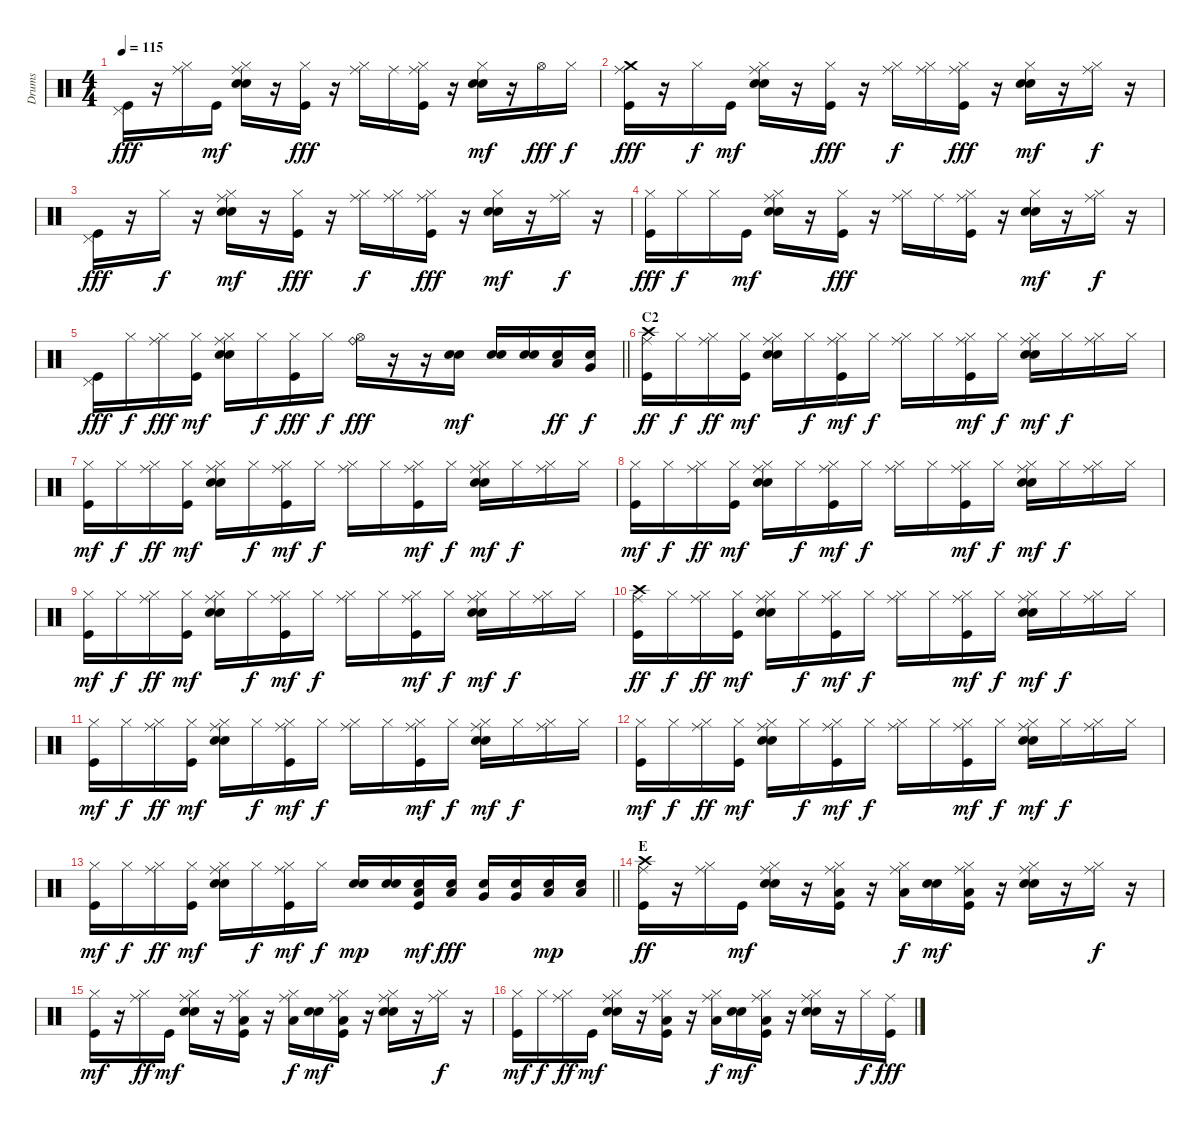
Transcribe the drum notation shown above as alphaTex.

\track ("Drums" "Drums") {instrument percussion}
\staff {score}
\articulation defaults
\ts (4 4)
\tempo 115
\clef neutral
\ks c
("Pedal Hi-Hat (hit)" "Kick (hit)").16{dy fff} r.16 ("Hi-Hat (closed)" "Ride (middle)").16 "Kick (hit)".16{dy mf} ("Hi-Hat (closed)" "Ride (middle)" "Electric Snare (hit)" "Snare (hit) 2").16 r.16 ("Hi-Hat (closed)" "Kick (hit)").16{dy fff} r.16 ("Hi-Hat (closed)" "Ride (middle)").16 "Ride (middle)".16 ("Hi-Hat (closed)" "Ride (middle)" "Kick (hit)").16 r.16 ("Hi-Hat (closed)" "Electric Snare (hit)" "Snare (hit) 2").16{dy mf} r.16 "Hi-Hat (open)".16{dy fff} "Hi-Hat (closed)".16{dy f} |
("Crash medium (hit)" "Ride (middle)" "Kick (hit)").16{dy fff} r.16 "Hi-Hat (closed)".16{dy f} "Kick (hit)".16{dy mf} ("Hi-Hat (closed)" "Ride (middle)" "Electric Snare (hit)" "Snare (hit) 2").16 r.16 ("Hi-Hat (closed)" "Kick (hit)").16{dy fff} r.16 ("Hi-Hat (closed)" "Ride (middle)").16{dy f} ("Hi-Hat (closed)" "Ride (middle)").16 ("Hi-Hat (closed)" "Ride (middle)" "Kick (hit)").16{dy fff} r.16 ("Hi-Hat (closed)" "Electric Snare (hit)" "Snare (hit) 2").16{dy mf} r.16 ("Hi-Hat (closed)" "Ride (middle)").16{dy f} r.16 |
("Pedal Hi-Hat (hit)" "Kick (hit)").16{dy fff} r.16 "Hi-Hat (closed)".16{dy f} r.16 ("Hi-Hat (closed)" "Ride (middle)" "Electric Snare (hit)" "Snare (hit) 2").16{dy mf} r.16 ("Hi-Hat (closed)" "Kick (hit)").16{dy fff} r.16 ("Hi-Hat (closed)" "Ride (middle)").16{dy f} ("Hi-Hat (closed)" "Ride (middle)").16 ("Hi-Hat (closed)" "Ride (middle)" "Kick (hit)").16{dy fff} r.16 ("Hi-Hat (closed)" "Electric Snare (hit)" "Snare (hit) 2").16{dy mf} r.16 ("Hi-Hat (closed)" "Ride (middle)").16{dy f} r.16 |
("Hi-Hat (closed)" "Kick (hit)").16{dy fff} "Hi-Hat (closed)".16{dy f} "Hi-Hat (closed)".16 "Kick (hit)".16{dy mf} ("Hi-Hat (closed)" "Ride (middle)" "Electric Snare (hit)" "Snare (hit) 2").16 r.16 ("Hi-Hat (closed)" "Kick (hit)").16{dy fff} r.16 ("Hi-Hat (closed)" "Ride (middle)").16 "Ride (middle)".16 ("Hi-Hat (closed)" "Ride (middle)" "Kick (hit)").16 r.16 ("Hi-Hat (closed)" "Electric Snare (hit)" "Snare (hit) 2").16{dy mf} r.16 ("Hi-Hat (closed)" "Ride (middle)").16{dy f} r.16 |
\barLineRight lightlight
("Pedal Hi-Hat (hit)" "Kick (hit)").16{dy fff} "Hi-Hat (closed)".16{dy f} ("Hi-Hat (closed)" "Ride (middle)").16{dy fff} ("Hi-Hat (closed)" "Kick (hit)").16{dy mf} ("Hi-Hat (closed)" "Ride (middle)" "Electric Snare (hit)" "Snare (hit) 2").16 "Hi-Hat (closed)".16{dy f} ("Hi-Hat (closed)" "Kick (hit)").16{dy fff} "Hi-Hat (closed)".16{dy f} ("Hi-Hat (open)" "Ride (bell)").16{dy fff} r.16 r.16 ("Electric Snare (hit)" "Snare (hit) 2").16{dy mf} ("Electric Snare (hit)" "Snare (hit) 2").16 ("Electric Snare (hit)" "Snare (hit) 2").16 ("Electric Snare (hit)" "Low Tom (hit)").16{dy ff} ("Electric Snare (hit)" "Very Low Tom (hit)").16{dy f} |
\section ("" "C2")
("Crash high (hit)" "Ride (middle)" "Kick (hit)").16{dy ff} "Hi-Hat (closed)".16{dy f} ("Hi-Hat (closed)" "Ride (middle)").16{dy ff} ("Hi-Hat (closed)" "Kick (hit)").16{dy mf} ("Hi-Hat (closed)" "Ride (middle)" "Electric Snare (hit)" "Snare (hit) 2").16 "Hi-Hat (closed)".16{dy f} ("Hi-Hat (closed)" "Ride (middle)" "Kick (hit)").16{dy mf} "Hi-Hat (closed)".16{dy f} ("Hi-Hat (closed)" "Ride (middle)").16 "Hi-Hat (closed)".16 ("Hi-Hat (closed)" "Ride (middle)" "Kick (hit)").16{dy mf} "Hi-Hat (closed)".16{dy f} ("Hi-Hat (closed)" "Ride (middle)" "Electric Snare (hit)" "Snare (hit) 2").16{dy mf} "Hi-Hat (closed)".16{dy f} ("Hi-Hat (closed)" "Ride (middle)").16 "Hi-Hat (closed)".16 |
("Hi-Hat (closed)" "Kick (hit)").16{dy mf} "Hi-Hat (closed)".16{dy f} ("Hi-Hat (closed)" "Ride (middle)").16{dy ff} ("Hi-Hat (closed)" "Kick (hit)").16{dy mf} ("Hi-Hat (closed)" "Ride (middle)" "Electric Snare (hit)" "Snare (hit) 2").16 "Hi-Hat (closed)".16{dy f} ("Hi-Hat (closed)" "Ride (middle)" "Kick (hit)").16{dy mf} "Hi-Hat (closed)".16{dy f} ("Hi-Hat (closed)" "Ride (middle)").16 "Hi-Hat (closed)".16 ("Hi-Hat (closed)" "Ride (middle)" "Kick (hit)").16{dy mf} "Hi-Hat (closed)".16{dy f} ("Hi-Hat (closed)" "Ride (middle)" "Electric Snare (hit)" "Snare (hit) 2").16{dy mf} "Hi-Hat (closed)".16{dy f} ("Hi-Hat (closed)" "Ride (middle)").16 "Hi-Hat (closed)".16 |
("Hi-Hat (closed)" "Kick (hit)").16{dy mf} "Hi-Hat (closed)".16{dy f} ("Hi-Hat (closed)" "Ride (middle)").16{dy ff} ("Hi-Hat (closed)" "Kick (hit)").16{dy mf} ("Hi-Hat (closed)" "Ride (middle)" "Electric Snare (hit)" "Snare (hit) 2").16 "Hi-Hat (closed)".16{dy f} ("Hi-Hat (closed)" "Ride (middle)" "Kick (hit)").16{dy mf} "Hi-Hat (closed)".16{dy f} ("Hi-Hat (closed)" "Ride (middle)").16 "Hi-Hat (closed)".16 ("Hi-Hat (closed)" "Ride (middle)" "Kick (hit)").16{dy mf} "Hi-Hat (closed)".16{dy f} ("Hi-Hat (closed)" "Ride (middle)" "Electric Snare (hit)" "Snare (hit) 2").16{dy mf} "Hi-Hat (closed)".16{dy f} ("Hi-Hat (closed)" "Ride (middle)").16 "Hi-Hat (closed)".16 |
("Hi-Hat (closed)" "Kick (hit)").16{dy mf} "Hi-Hat (closed)".16{dy f} ("Hi-Hat (closed)" "Ride (middle)").16{dy ff} ("Hi-Hat (closed)" "Kick (hit)").16{dy mf} ("Hi-Hat (closed)" "Ride (middle)" "Electric Snare (hit)" "Snare (hit) 2").16 "Hi-Hat (closed)".16{dy f} ("Hi-Hat (closed)" "Ride (middle)" "Kick (hit)").16{dy mf} "Hi-Hat (closed)".16{dy f} ("Hi-Hat (closed)" "Ride (middle)").16 "Hi-Hat (closed)".16 ("Hi-Hat (closed)" "Ride (middle)" "Kick (hit)").16{dy mf} "Hi-Hat (closed)".16{dy f} ("Hi-Hat (closed)" "Ride (middle)" "Electric Snare (hit)" "Snare (hit) 2").16{dy mf} "Hi-Hat (closed)".16{dy f} ("Hi-Hat (closed)" "Ride (middle)").16 "Hi-Hat (closed)".16 |
("Crash high (hit)" "Ride (middle)" "Kick (hit)").16{dy ff} "Hi-Hat (closed)".16{dy f} ("Hi-Hat (closed)" "Ride (middle)").16{dy ff} ("Hi-Hat (closed)" "Kick (hit)").16{dy mf} ("Hi-Hat (closed)" "Ride (middle)" "Electric Snare (hit)" "Snare (hit) 2").16 "Hi-Hat (closed)".16{dy f} ("Hi-Hat (closed)" "Ride (middle)" "Kick (hit)").16{dy mf} "Hi-Hat (closed)".16{dy f} ("Hi-Hat (closed)" "Ride (middle)").16 "Hi-Hat (closed)".16 ("Hi-Hat (closed)" "Ride (middle)" "Kick (hit)").16{dy mf} "Hi-Hat (closed)".16{dy f} ("Hi-Hat (closed)" "Ride (middle)" "Electric Snare (hit)" "Snare (hit) 2").16{dy mf} "Hi-Hat (closed)".16{dy f} ("Hi-Hat (closed)" "Ride (middle)").16 "Hi-Hat (closed)".16 |
("Hi-Hat (closed)" "Kick (hit)").16{dy mf} "Hi-Hat (closed)".16{dy f} ("Hi-Hat (closed)" "Ride (middle)").16{dy ff} ("Hi-Hat (closed)" "Kick (hit)").16{dy mf} ("Hi-Hat (closed)" "Ride (middle)" "Electric Snare (hit)" "Snare (hit) 2").16 "Hi-Hat (closed)".16{dy f} ("Hi-Hat (closed)" "Ride (middle)" "Kick (hit)").16{dy mf} "Hi-Hat (closed)".16{dy f} ("Hi-Hat (closed)" "Ride (middle)").16 "Hi-Hat (closed)".16 ("Hi-Hat (closed)" "Ride (middle)" "Kick (hit)").16{dy mf} "Hi-Hat (closed)".16{dy f} ("Hi-Hat (closed)" "Ride (middle)" "Electric Snare (hit)" "Snare (hit) 2").16{dy mf} "Hi-Hat (closed)".16{dy f} ("Hi-Hat (closed)" "Ride (middle)").16 "Hi-Hat (closed)".16 |
("Hi-Hat (closed)" "Kick (hit)").16{dy mf} "Hi-Hat (closed)".16{dy f} ("Hi-Hat (closed)" "Ride (middle)").16{dy ff} ("Hi-Hat (closed)" "Kick (hit)").16{dy mf} ("Hi-Hat (closed)" "Ride (middle)" "Electric Snare (hit)" "Snare (hit) 2").16 "Hi-Hat (closed)".16{dy f} ("Hi-Hat (closed)" "Ride (middle)" "Kick (hit)").16{dy mf} "Hi-Hat (closed)".16{dy f} ("Hi-Hat (closed)" "Ride (middle)").16 "Hi-Hat (closed)".16 ("Hi-Hat (closed)" "Ride (middle)" "Kick (hit)").16{dy mf} "Hi-Hat (closed)".16{dy f} ("Hi-Hat (closed)" "Ride (middle)" "Electric Snare (hit)" "Snare (hit) 2").16{dy mf} "Hi-Hat (closed)".16{dy f} ("Hi-Hat (closed)" "Ride (middle)").16 "Hi-Hat (closed)".16 |
\barLineRight lightlight
("Hi-Hat (closed)" "Kick (hit)").16{dy mf} "Hi-Hat (closed)".16{dy f} ("Hi-Hat (closed)" "Ride (middle)").16{dy ff} ("Hi-Hat (closed)" "Kick (hit)").16{dy mf} ("Hi-Hat (closed)" "Ride (middle)" "Electric Snare (hit)" "Snare (hit) 2").16 "Hi-Hat (closed)".16{dy f} ("Hi-Hat (closed)" "Ride (middle)" "Kick (hit)").16{dy mf} "Hi-Hat (closed)".16{dy f} ("Electric Snare (hit)" "Snare (hit) 2").16{dy mp} ("Electric Snare (hit)" "Snare (hit) 2").16 ("Electric Snare (hit)" "Low Tom (hit)" "Kick (hit)").16{dy mf} ("Electric Snare (hit)" "Low Tom (hit)").16{dy fff} ("Electric Snare (hit)" "Very Low Tom (hit)").16 ("Electric Snare (hit)" "Very Low Tom (hit)").16 ("Electric Snare (hit)" "Low Floor Tom (hit)").16{dy mp} ("Electric Snare (hit)" "Low Floor Tom (hit)").16 |
\section ("" "E")
("Crash high (hit)" "Ride (middle)" "Kick (hit)").16{dy ff} r.16 ("Hi-Hat (closed)" "Ride (middle)").16 "Kick (hit)".16{dy mf} ("Hi-Hat (closed)" "Ride (middle)" "Electric Snare (hit)" "Snare (hit) 2").16 r.16 ("Hi-Hat (closed)" "Ride (middle)" "Low Tom (hit)" "Kick (hit)").16 r.16 ("Hi-Hat (closed)" "Ride (middle)" "Low Tom (hit)").16{dy f} ("Electric Snare (hit)" "Snare (hit) 2").16{dy mf} ("Hi-Hat (closed)" "Ride (middle)" "Low Tom (hit)" "Kick (hit)").16 r.16 ("Hi-Hat (closed)" "Ride (middle)" "Electric Snare (hit)" "Snare (hit) 2").16 r.16 ("Hi-Hat (closed)" "Ride (middle)").16{dy f} r.16 |
("Hi-Hat (closed)" "Kick (hit)").16{dy mf} r.16 ("Hi-Hat (closed)" "Ride (middle)").16{dy ff} "Kick (hit)".16{dy mf} ("Hi-Hat (closed)" "Ride (middle)" "Electric Snare (hit)" "Snare (hit) 2").16 r.16 ("Hi-Hat (closed)" "Ride (middle)" "Low Tom (hit)" "Kick (hit)").16 r.16 ("Hi-Hat (closed)" "Ride (middle)" "Low Tom (hit)").16{dy f} ("Electric Snare (hit)" "Snare (hit) 2").16{dy mf} ("Hi-Hat (closed)" "Ride (middle)" "Low Tom (hit)" "Kick (hit)").16 r.16 ("Hi-Hat (closed)" "Ride (middle)" "Electric Snare (hit)" "Snare (hit) 2").16 r.16 ("Hi-Hat (closed)" "Ride (middle)").16{dy f} r.16 |
("Hi-Hat (closed)" "Kick (hit)").16{dy mf} "Hi-Hat (closed)".16{dy f} ("Hi-Hat (closed)" "Ride (middle)").16{dy ff} "Kick (hit)".16{dy mf} ("Hi-Hat (closed)" "Ride (middle)" "Electric Snare (hit)" "Snare (hit) 2").16 r.16 ("Hi-Hat (closed)" "Ride (middle)" "Low Tom (hit)" "Kick (hit)").16 r.16 ("Hi-Hat (closed)" "Ride (middle)" "Low Tom (hit)").16{dy f} ("Electric Snare (hit)" "Snare (hit) 2").16{dy mf} ("Hi-Hat (closed)" "Ride (middle)" "Low Tom (hit)" "Kick (hit)").16 r.16 ("Hi-Hat (closed)" "Ride (middle)" "Electric Snare (hit)" "Snare (hit) 2").16 r.16 "Hi-Hat (closed)".16{dy f} ("Ride (middle)" "Kick (hit)").16{dy fff}
